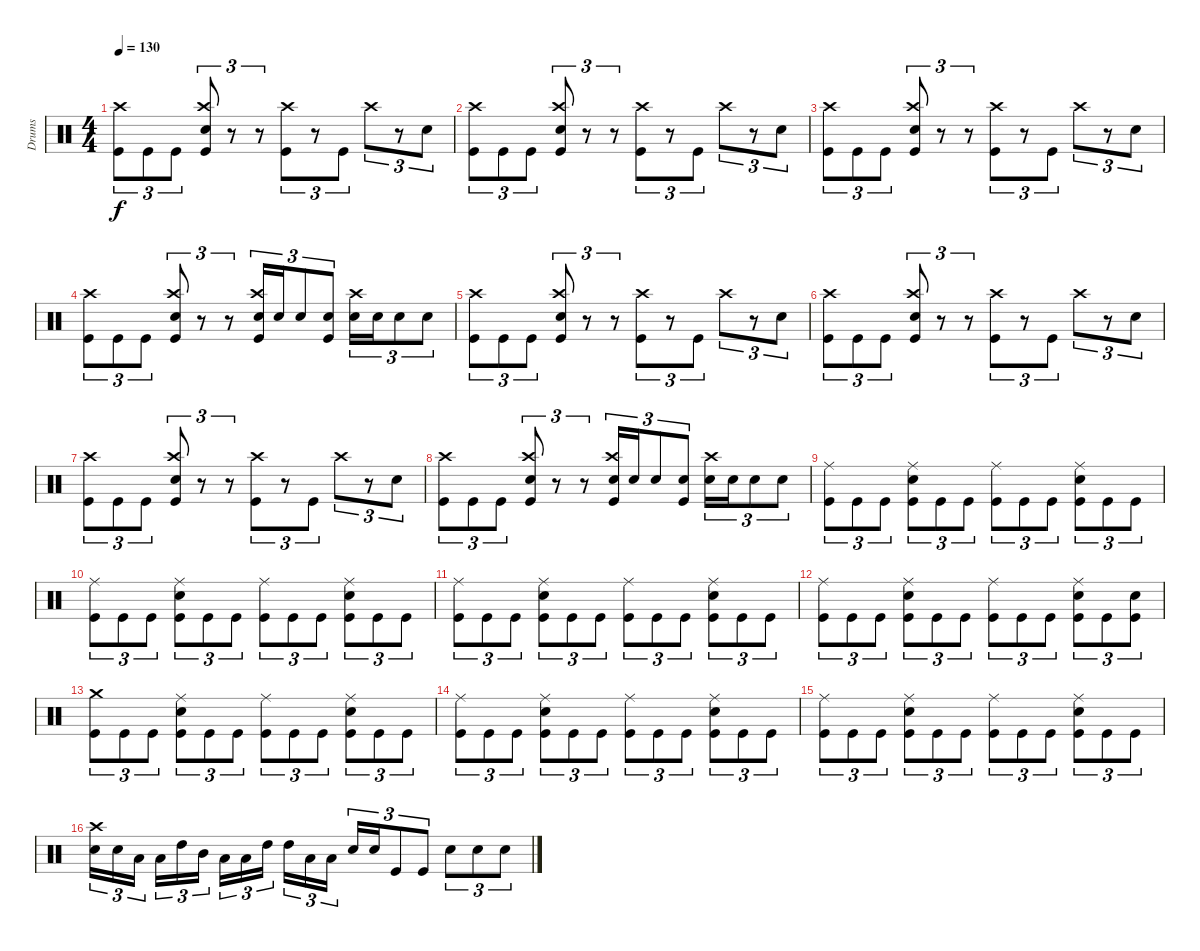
\track ("Drums" "Drums") {instrument percussion}
\staff {score}
\articulation defaults
\ts (4 4)
\tempo 130
\clef neutral
\ks c
("Kick (hit)" "Crash high (hit)").8{tu (3 2) dy f} "Kick (hit)".8{tu (3 2)} "Kick (hit)".8{tu (3 2)} ("Kick (hit)" "Snare (hit) 2" "Crash high (hit)").8{tu (3 2)} r.8{tu (3 2)} r.8{tu (3 2)} ("Kick (hit)" "Crash high (hit)").8{tu (3 2)} r.8{tu (3 2)} "Kick (hit)".8{tu (3 2)} "Crash high (hit)".8{tu (3 2)} r.8{tu (3 2)} "Snare (hit) 2".8{tu (3 2)} |
("Kick (hit)" "Crash high (hit)").8{tu (3 2)} "Kick (hit)".8{tu (3 2)} "Kick (hit)".8{tu (3 2)} ("Kick (hit)" "Snare (hit) 2" "Crash high (hit)").8{tu (3 2)} r.8{tu (3 2)} r.8{tu (3 2)} ("Kick (hit)" "Crash high (hit)").8{tu (3 2)} r.8{tu (3 2)} "Kick (hit)".8{tu (3 2)} "Crash high (hit)".8{tu (3 2)} r.8{tu (3 2)} "Snare (hit) 2".8{tu (3 2)} |
("Kick (hit)" "Crash high (hit)").8{tu (3 2)} "Kick (hit)".8{tu (3 2)} "Kick (hit)".8{tu (3 2)} ("Kick (hit)" "Snare (hit) 2" "Crash high (hit)").8{tu (3 2)} r.8{tu (3 2)} r.8{tu (3 2)} ("Kick (hit)" "Crash high (hit)").8{tu (3 2)} r.8{tu (3 2)} "Kick (hit)".8{tu (3 2)} "Crash high (hit)".8{tu (3 2)} r.8{tu (3 2)} "Snare (hit) 2".8{tu (3 2)} |
("Kick (hit)" "Crash high (hit)").8{tu (3 2)} "Kick (hit)".8{tu (3 2)} "Kick (hit)".8{tu (3 2)} ("Kick (hit)" "Snare (hit) 2" "Crash high (hit)").8{tu (3 2)} r.8{tu (3 2)} r.8{tu (3 2)} ("Kick (hit)" "Snare (hit) 2" "Crash high (hit)").16{tu (3 2)} "Snare (hit) 2".16{tu (3 2)} "Snare (hit) 2".8{tu (3 2)} ("Kick (hit)" "Snare (hit) 2").8{tu (3 2)} ("Snare (hit) 2" "Crash high (hit)").16{tu (3 2)} "Snare (hit) 2".16{tu (3 2)} "Snare (hit) 2".8{tu (3 2)} "Snare (hit) 2".8{tu (3 2)} |
("Kick (hit)" "Crash high (hit)").8{tu (3 2)} "Kick (hit)".8{tu (3 2)} "Kick (hit)".8{tu (3 2)} ("Kick (hit)" "Snare (hit) 2" "Crash high (hit)").8{tu (3 2)} r.8{tu (3 2)} r.8{tu (3 2)} ("Kick (hit)" "Crash high (hit)").8{tu (3 2)} r.8{tu (3 2)} "Kick (hit)".8{tu (3 2)} "Crash high (hit)".8{tu (3 2)} r.8{tu (3 2)} "Snare (hit) 2".8{tu (3 2)} |
("Kick (hit)" "Crash high (hit)").8{tu (3 2)} "Kick (hit)".8{tu (3 2)} "Kick (hit)".8{tu (3 2)} ("Kick (hit)" "Snare (hit) 2" "Crash high (hit)").8{tu (3 2)} r.8{tu (3 2)} r.8{tu (3 2)} ("Kick (hit)" "Crash high (hit)").8{tu (3 2)} r.8{tu (3 2)} "Kick (hit)".8{tu (3 2)} "Crash high (hit)".8{tu (3 2)} r.8{tu (3 2)} "Snare (hit) 2".8{tu (3 2)} |
("Kick (hit)" "Crash high (hit)").8{tu (3 2)} "Kick (hit)".8{tu (3 2)} "Kick (hit)".8{tu (3 2)} ("Kick (hit)" "Snare (hit) 2" "Crash high (hit)").8{tu (3 2)} r.8{tu (3 2)} r.8{tu (3 2)} ("Kick (hit)" "Crash high (hit)").8{tu (3 2)} r.8{tu (3 2)} "Kick (hit)".8{tu (3 2)} "Crash high (hit)".8{tu (3 2)} r.8{tu (3 2)} "Snare (hit) 2".8{tu (3 2)} |
("Kick (hit)" "Crash high (hit)").8{tu (3 2)} "Kick (hit)".8{tu (3 2)} "Kick (hit)".8{tu (3 2)} ("Kick (hit)" "Snare (hit) 2" "Crash high (hit)").8{tu (3 2)} r.8{tu (3 2)} r.8{tu (3 2)} ("Kick (hit)" "Snare (hit) 2" "Crash high (hit)").16{tu (3 2)} "Snare (hit) 2".16{tu (3 2)} "Snare (hit) 2".8{tu (3 2)} ("Kick (hit)" "Snare (hit) 2").8{tu (3 2)} ("Snare (hit) 2" "Crash high (hit)").16{tu (3 2)} "Snare (hit) 2".16{tu (3 2)} "Snare (hit) 2".8{tu (3 2)} "Snare (hit) 2".8{tu (3 2)} |
("Kick (hit)" "Ride (middle)").8{tu (3 2)} "Kick (hit)".8{tu (3 2)} "Kick (hit)".8{tu (3 2)} ("Kick (hit)" "Snare (hit) 2" "Ride (middle)").8{tu (3 2)} "Kick (hit)".8{tu (3 2)} "Kick (hit)".8{tu (3 2)} ("Kick (hit)" "Ride (middle)").8{tu (3 2)} "Kick (hit)".8{tu (3 2)} "Kick (hit)".8{tu (3 2)} ("Kick (hit)" "Snare (hit) 2" "Ride (middle)").8{tu (3 2)} "Kick (hit)".8{tu (3 2)} "Kick (hit)".8{tu (3 2)} |
("Kick (hit)" "Ride (middle)").8{tu (3 2)} "Kick (hit)".8{tu (3 2)} "Kick (hit)".8{tu (3 2)} ("Kick (hit)" "Snare (hit) 2" "Ride (middle)").8{tu (3 2)} "Kick (hit)".8{tu (3 2)} "Kick (hit)".8{tu (3 2)} ("Kick (hit)" "Ride (middle)").8{tu (3 2)} "Kick (hit)".8{tu (3 2)} "Kick (hit)".8{tu (3 2)} ("Kick (hit)" "Snare (hit) 2" "Ride (middle)").8{tu (3 2)} "Kick (hit)".8{tu (3 2)} "Kick (hit)".8{tu (3 2)} |
("Kick (hit)" "Ride (middle)").8{tu (3 2)} "Kick (hit)".8{tu (3 2)} "Kick (hit)".8{tu (3 2)} ("Kick (hit)" "Snare (hit) 2" "Ride (middle)").8{tu (3 2)} "Kick (hit)".8{tu (3 2)} "Kick (hit)".8{tu (3 2)} ("Kick (hit)" "Ride (middle)").8{tu (3 2)} "Kick (hit)".8{tu (3 2)} "Kick (hit)".8{tu (3 2)} ("Kick (hit)" "Snare (hit) 2" "Ride (middle)").8{tu (3 2)} "Kick (hit)".8{tu (3 2)} "Kick (hit)".8{tu (3 2)} |
("Kick (hit)" "Ride (middle)").8{tu (3 2)} "Kick (hit)".8{tu (3 2)} "Kick (hit)".8{tu (3 2)} ("Kick (hit)" "Snare (hit) 2" "Ride (middle)").8{tu (3 2)} "Kick (hit)".8{tu (3 2)} "Kick (hit)".8{tu (3 2)} ("Kick (hit)" "Ride (middle)").8{tu (3 2)} "Kick (hit)".8{tu (3 2)} "Kick (hit)".8{tu (3 2)} ("Kick (hit)" "Snare (hit) 2" "Ride (middle)").8{tu (3 2)} "Kick (hit)".8{tu (3 2)} ("Kick (hit)" "Snare (hit) 2").8{tu (3 2)} |
("Kick (hit)" "Crash medium (hit)").8{tu (3 2)} "Kick (hit)".8{tu (3 2)} "Kick (hit)".8{tu (3 2)} ("Kick (hit)" "Snare (hit) 2" "Ride (middle)").8{tu (3 2)} "Kick (hit)".8{tu (3 2)} "Kick (hit)".8{tu (3 2)} ("Kick (hit)" "Ride (middle)").8{tu (3 2)} "Kick (hit)".8{tu (3 2)} "Kick (hit)".8{tu (3 2)} ("Kick (hit)" "Snare (hit) 2" "Ride (middle)").8{tu (3 2)} "Kick (hit)".8{tu (3 2)} "Kick (hit)".8{tu (3 2)} |
("Kick (hit)" "Ride (middle)").8{tu (3 2)} "Kick (hit)".8{tu (3 2)} "Kick (hit)".8{tu (3 2)} ("Kick (hit)" "Snare (hit) 2" "Ride (middle)").8{tu (3 2)} "Kick (hit)".8{tu (3 2)} "Kick (hit)".8{tu (3 2)} ("Kick (hit)" "Ride (middle)").8{tu (3 2)} "Kick (hit)".8{tu (3 2)} "Kick (hit)".8{tu (3 2)} ("Kick (hit)" "Snare (hit) 2" "Ride (middle)").8{tu (3 2)} "Kick (hit)".8{tu (3 2)} "Kick (hit)".8{tu (3 2)} |
("Kick (hit)" "Ride (middle)").8{tu (3 2)} "Kick (hit)".8{tu (3 2)} "Kick (hit)".8{tu (3 2)} ("Kick (hit)" "Snare (hit) 2" "Ride (middle)").8{tu (3 2)} "Kick (hit)".8{tu (3 2)} "Kick (hit)".8{tu (3 2)} ("Kick (hit)" "Ride (middle)").8{tu (3 2)} "Kick (hit)".8{tu (3 2)} "Kick (hit)".8{tu (3 2)} ("Kick (hit)" "Snare (hit) 2" "Ride (middle)").8{tu (3 2)} "Kick (hit)".8{tu (3 2)} "Kick (hit)".8{tu (3 2)} |
("Snare (hit) 2" "Crash high (hit)").16{tu (3 2)} "Snare (hit) 2".16{tu (3 2)} "Low Tom (hit)".16{tu (3 2)} "Low Tom (hit)".16{tu (3 2)} "High Tom (hit)".16{tu (3 2)} "Mid Tom (hit)".16{tu (3 2)} "Low Tom (hit)".16{tu (3 2)} "Low Tom (hit)".16{tu (3 2)} "High Tom (hit)".16{tu (3 2)} "High Tom (hit)".16{tu (3 2)} "Low Tom (hit)".16{tu (3 2)} "Low Tom (hit)".16{tu (3 2)} "Snare (hit) 2".16{tu (3 2)} "Snare (hit) 2".16{tu (3 2)} "Kick (hit)".8{tu (3 2)} "Kick (hit)".8{tu (3 2)} "Snare (hit) 2".8{tu (3 2)} "Snare (hit) 2".8{tu (3 2)} "Snare (hit) 2".8{tu (3 2)}
